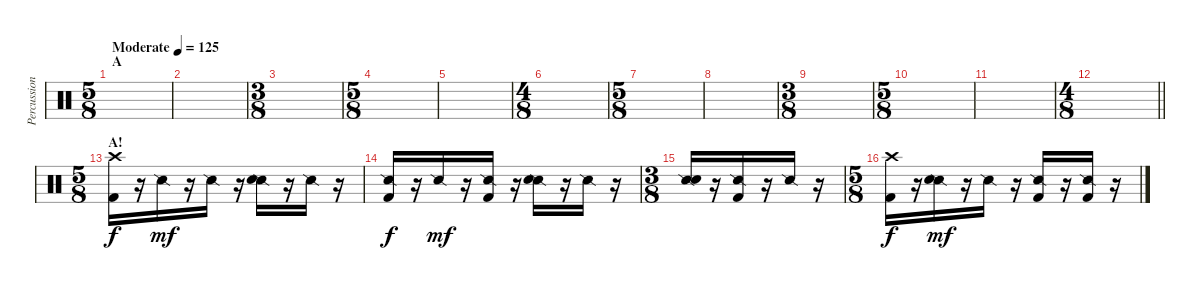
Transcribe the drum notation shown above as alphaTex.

\track ("Percussion" "Percussion") {instrument percussion}
\staff {score}
\articulation defaults
\ts (5 8)
\section ("" "A")
\tempo (125 "Moderate")
\clef neutral
\ks c
|
|
\ts (3 8)
|
\ts (5 8)
|
|
\ts (4 8)
|
\ts (5 8)
|
|
\ts (3 8)
|
\ts (5 8)
|
|
\ts (4 8)
\barLineRight lightlight
|
\ts (5 8)
\section ("" "A!")
("Crash high (hit)" "Kick (hit) 2").16 r.16 "Snare (side stick) 2".16{dy mf} r.16 "Snare (side stick) 2".16 r.16 ("Snare (side stick) 2" "Snare (hit) 2").16 r.16 "Snare (side stick) 2".16 r.16 |
("Snare (side stick) 2" "Kick (hit) 2").16{dy f} r.16 "Snare (side stick) 2".16{dy mf} r.16 ("Snare (side stick) 2" "Kick (hit) 2").16 r.16 ("Snare (side stick) 2" "Snare (hit) 2").16 r.16 "Snare (side stick) 2".16 r.16 |
\ts (3 8)
("Snare (side stick) 2" "Snare (hit) 2").16 r.16 ("Snare (side stick) 2" "Kick (hit) 2").16 r.16 "Snare (side stick) 2".16 r.16 |
\ts (5 8)
("Crash high (hit)" "Kick (hit) 2").16{dy f} r.16 ("Snare (side stick) 2" "Snare (hit) 2").16{dy mf} r.16 "Snare (side stick) 2".16 r.16 ("Snare (side stick) 2" "Kick (hit) 2").16 r.16 ("Snare (side stick) 2" "Kick (hit) 2").16 r.16
